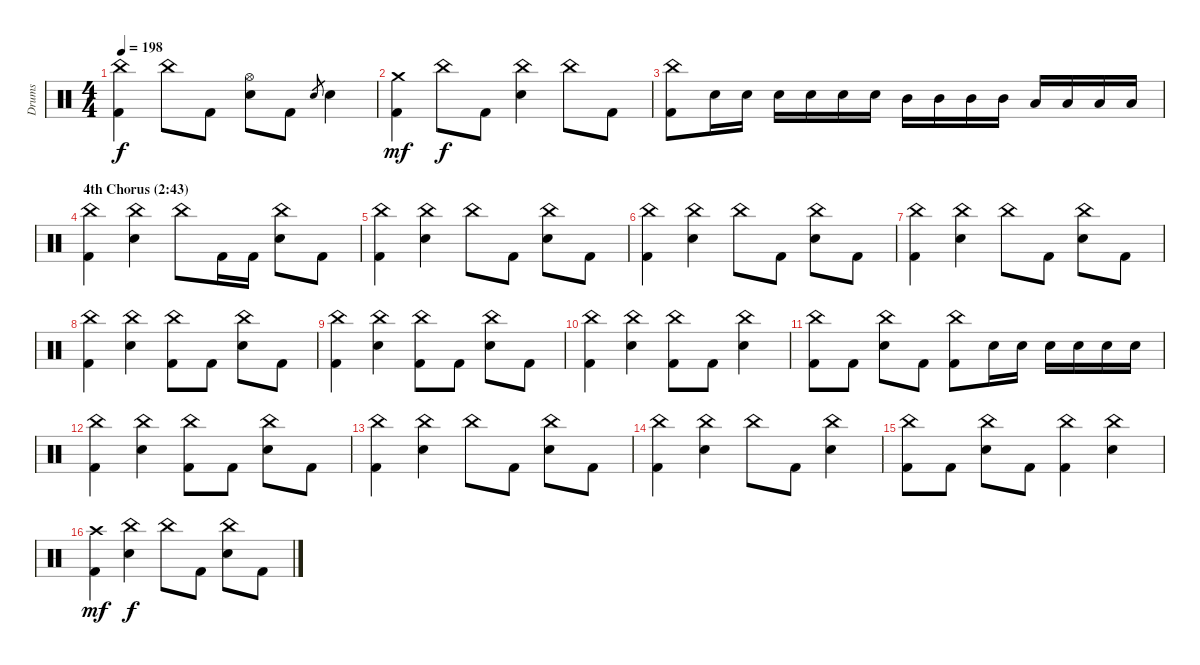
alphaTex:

\track ("Drums" "Drums") {instrument percussion}
\staff {score}
\articulation defaults
\ts (4 4)
\tempo 198
\clef neutral
\ks c
("China (hit)" "Kick (hit) 2").4{dy f} "China (hit)".8 "Kick (hit) 2".8 ("Hi-Hat (open)" "Snare (hit) 2").8 "Kick (hit) 2".8 "Snare (hit) 2".8{gr} "Snare (hit) 2".4 |
("Crash medium (hit)" "Kick (hit) 2").4{dy mf} "China (hit)".8{dy f} "Kick (hit) 2".8 ("China (hit)" "Snare (hit) 2").4 "China (hit)".8 "Kick (hit) 2".8 |
("China (hit)" "Kick (hit) 2").8 "Snare (hit) 2".16 "Snare (hit) 2".16 "Snare (hit) 2".16 "Snare (hit) 2".16 "Snare (hit) 2".16 "Snare (hit) 2".16 "Mid Tom (hit)".16 "Mid Tom (hit)".16 "Mid Tom (hit)".16 "Mid Tom (hit)".16 "Low Tom (hit)".16 "Low Tom (hit)".16 "Low Tom (hit)".16 "Low Tom (hit)".16 |
\section ("" "4th Chorus (2:43)")
("China (hit)" "Kick (hit) 2").4 ("China (hit)" "Snare (hit) 2").4 "China (hit)".8 "Kick (hit) 2".16 "Kick (hit) 2".16 ("China (hit)" "Snare (hit) 2").8 "Kick (hit) 2".8 |
("China (hit)" "Kick (hit) 2").4 ("China (hit)" "Snare (hit) 2").4 "China (hit)".8 "Kick (hit) 2".8 ("China (hit)" "Snare (hit) 2").8 "Kick (hit) 2".8 |
("China (hit)" "Kick (hit) 2").4 ("China (hit)" "Snare (hit) 2").4 "China (hit)".8 "Kick (hit) 2".8 ("China (hit)" "Snare (hit) 2").8 "Kick (hit) 2".8 |
("China (hit)" "Kick (hit) 2").4 ("China (hit)" "Snare (hit) 2").4 "China (hit)".8 "Kick (hit) 2".8 ("China (hit)" "Snare (hit) 2").8 "Kick (hit) 2".8 |
("China (hit)" "Kick (hit) 2").4 ("China (hit)" "Snare (hit) 2").4 ("China (hit)" "Kick (hit) 2").8 "Kick (hit) 2".8 ("China (hit)" "Snare (hit) 2").8 "Kick (hit) 2".8 |
("China (hit)" "Kick (hit) 2").4 ("China (hit)" "Snare (hit) 2").4 ("China (hit)" "Kick (hit) 2").8 "Kick (hit) 2".8 ("China (hit)" "Snare (hit) 2").8 "Kick (hit) 2".8 |
("China (hit)" "Kick (hit) 2").4 ("China (hit)" "Snare (hit) 2").4 ("China (hit)" "Kick (hit) 2").8 "Kick (hit) 2".8 ("China (hit)" "Snare (hit) 2").4 |
("China (hit)" "Kick (hit) 2").8 "Kick (hit) 2".8 ("China (hit)" "Snare (hit) 2").8 "Kick (hit) 2".8 ("China (hit)" "Kick (hit) 2").8 "Snare (hit) 2".16 "Snare (hit) 2".16 "Snare (hit) 2".16 "Snare (hit) 2".16 "Snare (hit) 2".16 "Snare (hit) 2".16 |
("China (hit)" "Kick (hit) 2").4 ("China (hit)" "Snare (hit) 2").4 ("China (hit)" "Kick (hit) 2").8 "Kick (hit) 2".8 ("China (hit)" "Snare (hit) 2").8 "Kick (hit) 2".8 |
("China (hit)" "Kick (hit) 2").4 ("China (hit)" "Snare (hit) 2").4 "China (hit)".8 "Kick (hit) 2".8 ("China (hit)" "Snare (hit) 2").8 "Kick (hit) 2".8 |
("China (hit)" "Kick (hit) 2").4 ("China (hit)" "Snare (hit) 2").4 "China (hit)".8 "Kick (hit) 2".8 ("China (hit)" "Snare (hit) 2").4 |
("China (hit)" "Kick (hit) 2").8 "Kick (hit) 2".8 ("China (hit)" "Snare (hit) 2").8 "Kick (hit) 2".8 ("China (hit)" "Kick (hit) 2").4 ("China (hit)" "Snare (hit) 2").4 |
("Crash high (hit)" "Kick (hit) 2").4{dy mf} ("China (hit)" "Snare (hit) 2").4{dy f} "China (hit)".8 "Kick (hit) 2".8 ("China (hit)" "Snare (hit) 2").8 "Kick (hit) 2".8
